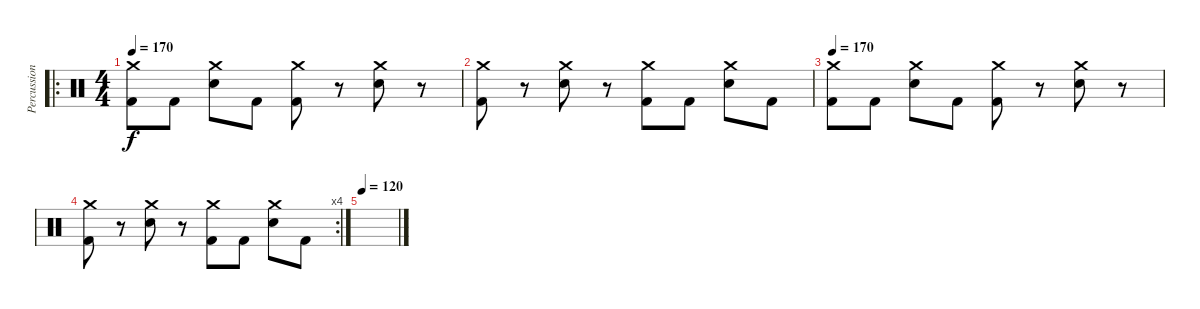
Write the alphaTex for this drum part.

\track ("Percussion" "Percussion") {instrument percussion}
\staff {score}
\articulation defaults
\ro
\ts (4 4)
\tempo 170
\clef neutral
\ks c
("Crash medium (hit)" "Kick (hit) 2").8{dy f} "Kick (hit) 2".8 ("Crash medium (hit)" "Electric Snare (hit)").8 "Kick (hit) 2".8 ("Crash medium (hit)" "Kick (hit) 2").8 r.8 ("Crash medium (hit)" "Electric Snare (hit)").8 r.8 |
("Crash medium (hit)" "Kick (hit) 2").8 r.8 ("Crash medium (hit)" "Electric Snare (hit)").8 r.8 ("Crash medium (hit)" "Kick (hit) 2").8 "Kick (hit) 2".8 ("Crash medium (hit)" "Electric Snare (hit)").8 "Kick (hit) 2".8 |
\tempo 170
("Crash medium (hit)" "Kick (hit) 2").8 "Kick (hit) 2".8 ("Crash medium (hit)" "Electric Snare (hit)").8 "Kick (hit) 2".8 ("Crash medium (hit)" "Kick (hit) 2").8 r.8 ("Crash medium (hit)" "Electric Snare (hit)").8 r.8 |
\rc 4
("Crash medium (hit)" "Kick (hit) 2").8 r.8 ("Crash medium (hit)" "Electric Snare (hit)").8 r.8 ("Crash medium (hit)" "Kick (hit) 2").8 "Kick (hit) 2".8 ("Crash medium (hit)" "Electric Snare (hit)").8 "Kick (hit) 2".8 |
\tempo 120
